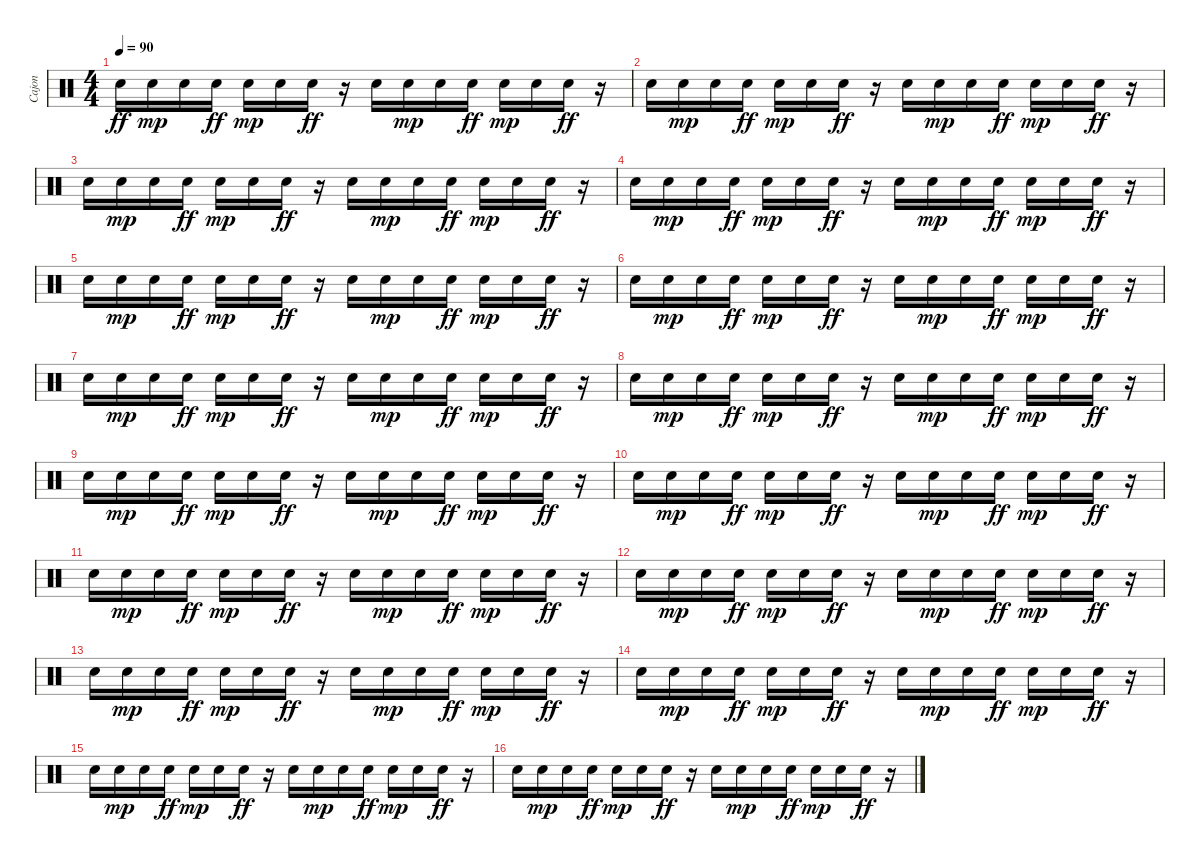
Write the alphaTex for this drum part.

\track ("Cajon" "Cajon") {instrument percussion}
\staff {score}
\articulation defaults
\ts (4 4)
\tempo 90
\clef neutral
\ks c "Snare (hit) 2".16{dy ff} "Electric Snare (hit)".16{dy mp} "Electric Snare (hit)".16 "Electric Snare (hit)".16{dy ff} "Electric Snare (hit)".16{dy mp} "Electric Snare (hit)".16 "Electric Snare (hit)".16{dy ff}
r.16 "Snare (hit) 2".16 "Electric Snare (hit)".16{dy mp} "Electric Snare (hit)".16 "Electric Snare (hit)".16{dy ff} "Electric Snare (hit)".16{dy mp} "Electric Snare (hit)".16 "Electric Snare (hit)".16{dy ff} r.16 |
"Snare (hit) 2".16 "Electric Snare (hit)".16{dy mp} "Electric Snare (hit)".16 "Electric Snare (hit)".16{dy ff} "Electric Snare (hit)".16{dy mp} "Electric Snare (hit)".16 "Electric Snare (hit)".16{dy ff} r.16 "Snare (hit) 2".16 "Electric Snare (hit)".16{dy mp} "Electric Snare (hit)".16 "Electric Snare (hit)".16{dy ff} "Electric Snare (hit)".16{dy mp} "Electric Snare (hit)".16 "Electric Snare (hit)".16{dy ff} r.16 |
"Snare (hit) 2".16 "Electric Snare (hit)".16{dy mp} "Electric Snare (hit)".16 "Electric Snare (hit)".16{dy ff} "Electric Snare (hit)".16{dy mp} "Electric Snare (hit)".16 "Electric Snare (hit)".16{dy ff} r.16 "Snare (hit) 2".16 "Electric Snare (hit)".16{dy mp} "Electric Snare (hit)".16 "Electric Snare (hit)".16{dy ff} "Electric Snare (hit)".16{dy mp} "Electric Snare (hit)".16 "Electric Snare (hit)".16{dy ff} r.16 |
"Snare (hit) 2".16 "Electric Snare (hit)".16{dy mp} "Electric Snare (hit)".16 "Electric Snare (hit)".16{dy ff} "Electric Snare (hit)".16{dy mp} "Electric Snare (hit)".16 "Electric Snare (hit)".16{dy ff} r.16 "Snare (hit) 2".16 "Electric Snare (hit)".16{dy mp} "Electric Snare (hit)".16 "Electric Snare (hit)".16{dy ff} "Electric Snare (hit)".16{dy mp} "Electric Snare (hit)".16 "Electric Snare (hit)".16{dy ff} r.16 |
"Snare (hit) 2".16 "Electric Snare (hit)".16{dy mp} "Electric Snare (hit)".16 "Electric Snare (hit)".16{dy ff} "Electric Snare (hit)".16{dy mp} "Electric Snare (hit)".16 "Electric Snare (hit)".16{dy ff} r.16 "Snare (hit) 2".16 "Electric Snare (hit)".16{dy mp} "Electric Snare (hit)".16 "Electric Snare (hit)".16{dy ff} "Electric Snare (hit)".16{dy mp} "Electric Snare (hit)".16 "Electric Snare (hit)".16{dy ff} r.16 |
"Snare (hit) 2".16 "Electric Snare (hit)".16{dy mp} "Electric Snare (hit)".16 "Electric Snare (hit)".16{dy ff} "Electric Snare (hit)".16{dy mp} "Electric Snare (hit)".16 "Electric Snare (hit)".16{dy ff} r.16 "Snare (hit) 2".16 "Electric Snare (hit)".16{dy mp} "Electric Snare (hit)".16 "Electric Snare (hit)".16{dy ff} "Electric Snare (hit)".16{dy mp} "Electric Snare (hit)".16 "Electric Snare (hit)".16{dy ff} r.16 |
"Snare (hit) 2".16 "Electric Snare (hit)".16{dy mp} "Electric Snare (hit)".16 "Electric Snare (hit)".16{dy ff} "Electric Snare (hit)".16{dy mp} "Electric Snare (hit)".16 "Electric Snare (hit)".16{dy ff} r.16 "Snare (hit) 2".16 "Electric Snare (hit)".16{dy mp} "Electric Snare (hit)".16 "Electric Snare (hit)".16{dy ff} "Electric Snare (hit)".16{dy mp} "Electric Snare (hit)".16 "Electric Snare (hit)".16{dy ff} r.16 |
"Snare (hit) 2".16 "Electric Snare (hit)".16{dy mp} "Electric Snare (hit)".16 "Electric Snare (hit)".16{dy ff} "Electric Snare (hit)".16{dy mp} "Electric Snare (hit)".16 "Electric Snare (hit)".16{dy ff} r.16 "Snare (hit) 2".16 "Electric Snare (hit)".16{dy mp} "Electric Snare (hit)".16 "Electric Snare (hit)".16{dy ff} "Electric Snare (hit)".16{dy mp} "Electric Snare (hit)".16 "Electric Snare (hit)".16{dy ff} r.16 |
"Snare (hit) 2".16 "Electric Snare (hit)".16{dy mp} "Electric Snare (hit)".16 "Electric Snare (hit)".16{dy ff} "Electric Snare (hit)".16{dy mp} "Electric Snare (hit)".16 "Electric Snare (hit)".16{dy ff} r.16 "Snare (hit) 2".16 "Electric Snare (hit)".16{dy mp} "Electric Snare (hit)".16 "Electric Snare (hit)".16{dy ff} "Electric Snare (hit)".16{dy mp} "Electric Snare (hit)".16 "Electric Snare (hit)".16{dy ff} r.16 |
"Snare (hit) 2".16 "Electric Snare (hit)".16{dy mp} "Electric Snare (hit)".16 "Electric Snare (hit)".16{dy ff} "Electric Snare (hit)".16{dy mp} "Electric Snare (hit)".16 "Electric Snare (hit)".16{dy ff} r.16 "Snare (hit) 2".16 "Electric Snare (hit)".16{dy mp} "Electric Snare (hit)".16 "Electric Snare (hit)".16{dy ff} "Electric Snare (hit)".16{dy mp} "Electric Snare (hit)".16 "Electric Snare (hit)".16{dy ff} r.16 |
"Snare (hit) 2".16 "Electric Snare (hit)".16{dy mp} "Electric Snare (hit)".16 "Electric Snare (hit)".16{dy ff} "Electric Snare (hit)".16{dy mp} "Electric Snare (hit)".16 "Electric Snare (hit)".16{dy ff} r.16 "Snare (hit) 2".16 "Electric Snare (hit)".16{dy mp} "Electric Snare (hit)".16 "Electric Snare (hit)".16{dy ff} "Electric Snare (hit)".16{dy mp} "Electric Snare (hit)".16 "Electric Snare (hit)".16{dy ff} r.16 |
"Snare (hit) 2".16 "Electric Snare (hit)".16{dy mp} "Electric Snare (hit)".16 "Electric Snare (hit)".16{dy ff} "Electric Snare (hit)".16{dy mp} "Electric Snare (hit)".16 "Electric Snare (hit)".16{dy ff} r.16 "Snare (hit) 2".16 "Electric Snare (hit)".16{dy mp} "Electric Snare (hit)".16 "Electric Snare (hit)".16{dy ff} "Electric Snare (hit)".16{dy mp} "Electric Snare (hit)".16 "Electric Snare (hit)".16{dy ff} r.16 |
"Snare (hit) 2".16 "Electric Snare (hit)".16{dy mp} "Electric Snare (hit)".16 "Electric Snare (hit)".16{dy ff} "Electric Snare (hit)".16{dy mp} "Electric Snare (hit)".16 "Electric Snare (hit)".16{dy ff} r.16 "Snare (hit) 2".16 "Electric Snare (hit)".16{dy mp} "Electric Snare (hit)".16 "Electric Snare (hit)".16{dy ff} "Electric Snare (hit)".16{dy mp} "Electric Snare (hit)".16 "Electric Snare (hit)".16{dy ff} r.16 |
"Snare (hit) 2".16 "Electric Snare (hit)".16{dy mp} "Electric Snare (hit)".16 "Electric Snare (hit)".16{dy ff} "Electric Snare (hit)".16{dy mp} "Electric Snare (hit)".16 "Electric Snare (hit)".16{dy ff} r.16 "Snare (hit) 2".16 "Electric Snare (hit)".16{dy mp} "Electric Snare (hit)".16 "Electric Snare (hit)".16{dy ff} "Electric Snare (hit)".16{dy mp} "Electric Snare (hit)".16 "Electric Snare (hit)".16{dy ff} r.16 |
"Snare (hit) 2".16 "Electric Snare (hit)".16{dy mp} "Electric Snare (hit)".16 "Electric Snare (hit)".16{dy ff} "Electric Snare (hit)".16{dy mp} "Electric Snare (hit)".16 "Electric Snare (hit)".16{dy ff} r.16 "Snare (hit) 2".16 "Electric Snare (hit)".16{dy mp} "Electric Snare (hit)".16 "Electric Snare (hit)".16{dy ff} "Electric Snare (hit)".16{dy mp} "Electric Snare (hit)".16 "Electric Snare (hit)".16{dy ff} r.16 |
"Snare (hit) 2".16 "Electric Snare (hit)".16{dy mp} "Electric Snare (hit)".16 "Electric Snare (hit)".16{dy ff} "Electric Snare (hit)".16{dy mp} "Electric Snare (hit)".16 "Electric Snare (hit)".16{dy ff} r.16 "Snare (hit) 2".16 "Electric Snare (hit)".16{dy mp} "Electric Snare (hit)".16 "Electric Snare (hit)".16{dy ff} "Electric Snare (hit)".16{dy mp} "Electric Snare (hit)".16 "Electric Snare (hit)".16{dy ff} r.16
